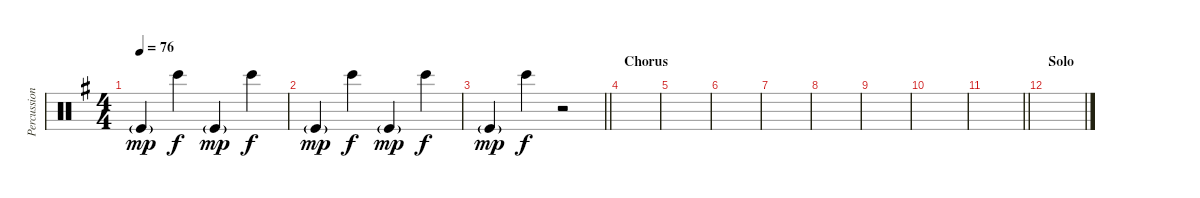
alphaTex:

\track ("Percussion(Synth)" "Percussion") {instrument percussion}
\staff {score}
\articulation defaults
\ts (4 4)
\tempo 76
\clef neutral
\ks g "Kick (hit)"{g}.4{dy mp} "Bongo High (hit)".4{dy f} "Kick (hit)"{g}.4{dy mp} "Bongo High (hit)".4{dy f}
|
"Kick (hit)"{g}.4{dy mp} "Bongo High (hit)".4{dy f} "Kick (hit)"{g}.4{dy mp} "Bongo High (hit)".4{dy f} |
\barLineRight lightlight "Kick (hit)"{g}.4{dy mp} "Bongo High (hit)".4{dy f}
r.2 |
\section ("" "Chorus")
|
|
|
|
|
|
|
\barLineRight lightlight
|
\section ("" "Solo")
